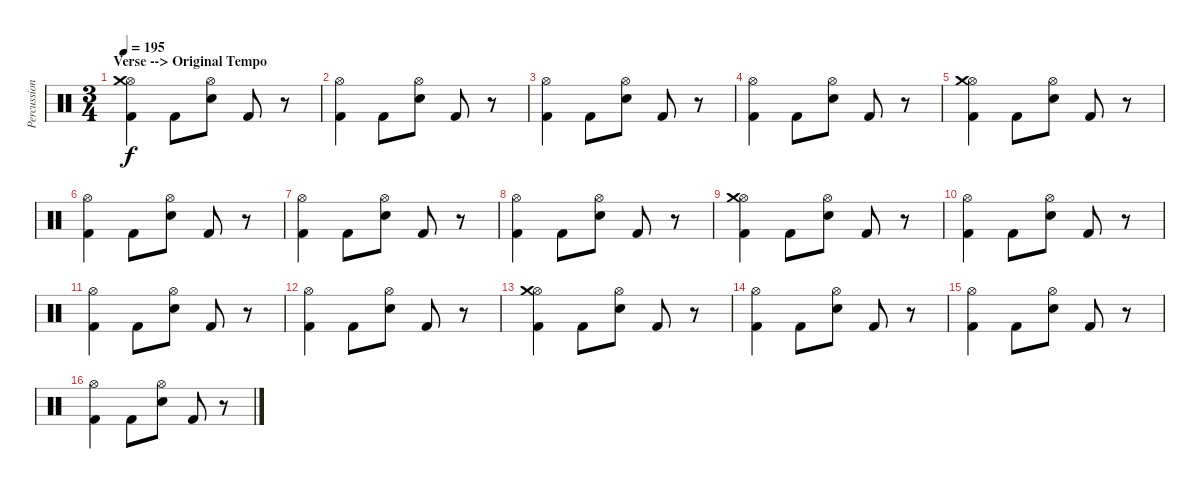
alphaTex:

\track ("Percussion" "Percussion") {instrument percussion}
\staff {score}
\articulation defaults
\ts (3 4)
\section ("" "Verse --> Original Tempo")
\tempo 195
\clef neutral
\ks c
("Hi-Hat (open)" "Crash medium (hit)" "Kick (hit) 2").4{dy f} "Kick (hit) 2".8 ("Hi-Hat (open)" "Snare (hit) 2").8 "Kick (hit) 2".8 r.8 |
("Hi-Hat (open)" "Kick (hit) 2").4 "Kick (hit) 2".8 ("Hi-Hat (open)" "Snare (hit) 2").8 "Kick (hit) 2".8 r.8 |
("Hi-Hat (open)" "Kick (hit) 2").4 "Kick (hit) 2".8 ("Hi-Hat (open)" "Snare (hit) 2").8 "Kick (hit) 2".8 r.8 |
("Hi-Hat (open)" "Kick (hit) 2").4 "Kick (hit) 2".8 ("Hi-Hat (open)" "Snare (hit) 2").8 "Kick (hit) 2".8 r.8 |
("Hi-Hat (open)" "Crash medium (hit)" "Kick (hit) 2").4 "Kick (hit) 2".8 ("Hi-Hat (open)" "Snare (hit) 2").8 "Kick (hit) 2".8 r.8 |
("Hi-Hat (open)" "Kick (hit) 2").4 "Kick (hit) 2".8 ("Hi-Hat (open)" "Snare (hit) 2").8 "Kick (hit) 2".8 r.8 |
("Hi-Hat (open)" "Kick (hit) 2").4 "Kick (hit) 2".8 ("Hi-Hat (open)" "Snare (hit) 2").8 "Kick (hit) 2".8 r.8 |
("Hi-Hat (open)" "Kick (hit) 2").4 "Kick (hit) 2".8 ("Hi-Hat (open)" "Snare (hit) 2").8 "Kick (hit) 2".8 r.8 |
("Hi-Hat (open)" "Crash medium (hit)" "Kick (hit) 2").4 "Kick (hit) 2".8 ("Hi-Hat (open)" "Snare (hit) 2").8 "Kick (hit) 2".8 r.8 |
("Hi-Hat (open)" "Kick (hit) 2").4 "Kick (hit) 2".8 ("Hi-Hat (open)" "Snare (hit) 2").8 "Kick (hit) 2".8 r.8 |
("Hi-Hat (open)" "Kick (hit) 2").4 "Kick (hit) 2".8 ("Hi-Hat (open)" "Snare (hit) 2").8 "Kick (hit) 2".8 r.8 |
("Hi-Hat (open)" "Kick (hit) 2").4 "Kick (hit) 2".8 ("Hi-Hat (open)" "Snare (hit) 2").8 "Kick (hit) 2".8 r.8 |
("Hi-Hat (open)" "Crash medium (hit)" "Kick (hit) 2").4 "Kick (hit) 2".8 ("Hi-Hat (open)" "Snare (hit) 2").8 "Kick (hit) 2".8 r.8 |
("Hi-Hat (open)" "Kick (hit) 2").4 "Kick (hit) 2".8 ("Hi-Hat (open)" "Snare (hit) 2").8 "Kick (hit) 2".8 r.8 |
("Hi-Hat (open)" "Kick (hit) 2").4 "Kick (hit) 2".8 ("Hi-Hat (open)" "Snare (hit) 2").8 "Kick (hit) 2".8 r.8 |
("Hi-Hat (open)" "Kick (hit) 2").4 "Kick (hit) 2".8 ("Hi-Hat (open)" "Snare (hit) 2").8 "Kick (hit) 2".8 r.8
